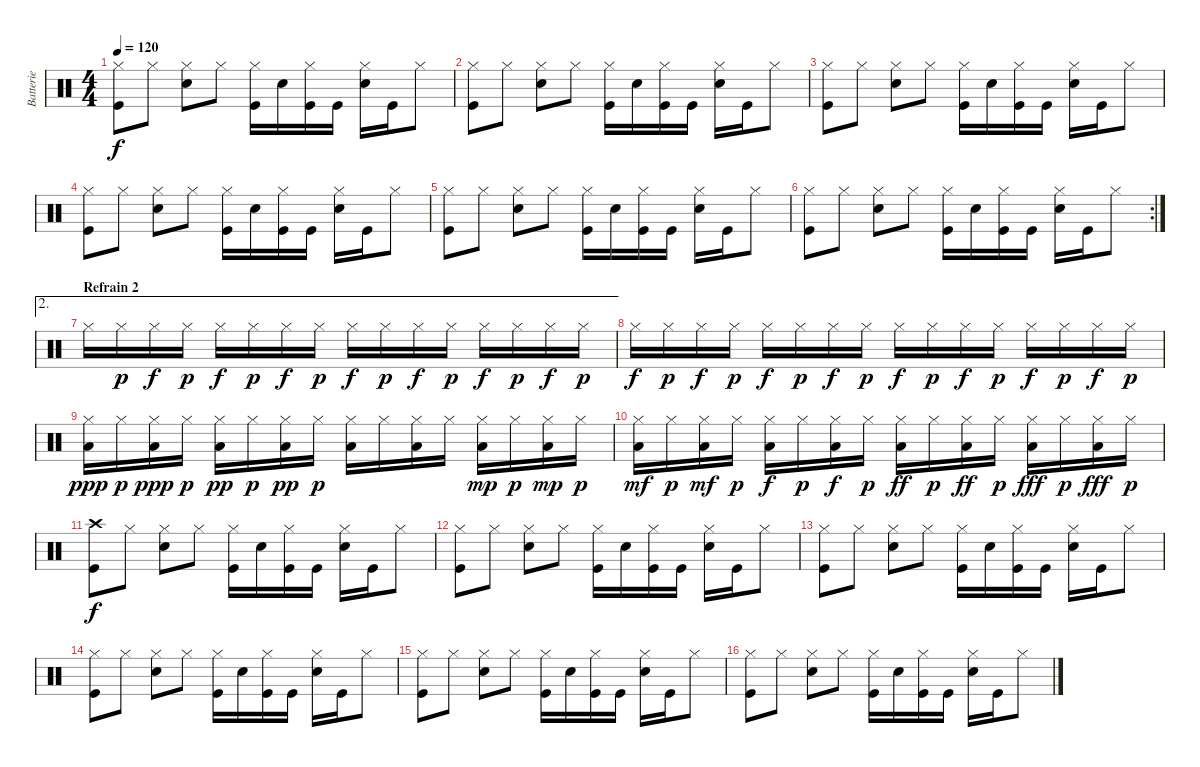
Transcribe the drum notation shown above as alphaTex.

\track ("Batterie" "Batterie") {instrument percussion}
\staff {score}
\articulation defaults
\ts (4 4)
\tempo 120
\clef neutral
\ks c
("Hi-Hat (closed)" "Kick (hit)").8{dy f} "Hi-Hat (closed)".8 ("Hi-Hat (closed)" "Snare (hit) 2").8 "Hi-Hat (closed)".8 ("Hi-Hat (closed)" "Kick (hit)").16 "Snare (hit) 2".16 ("Hi-Hat (closed)" "Kick (hit)").16 "Kick (hit)".16 ("Hi-Hat (closed)" "Snare (hit) 2").16 "Kick (hit)".16 "Hi-Hat (closed)".8 |
("Hi-Hat (closed)" "Kick (hit)").8 "Hi-Hat (closed)".8 ("Hi-Hat (closed)" "Snare (hit) 2").8 "Hi-Hat (closed)".8 ("Hi-Hat (closed)" "Kick (hit)").16 "Snare (hit) 2".16 ("Hi-Hat (closed)" "Kick (hit)").16 "Kick (hit)".16 ("Hi-Hat (closed)" "Snare (hit) 2").16 "Kick (hit)".16 "Hi-Hat (closed)".8 |
("Hi-Hat (closed)" "Kick (hit)").8 "Hi-Hat (closed)".8 ("Hi-Hat (closed)" "Snare (hit) 2").8 "Hi-Hat (closed)".8 ("Hi-Hat (closed)" "Kick (hit)").16 "Snare (hit) 2".16 ("Hi-Hat (closed)" "Kick (hit)").16 "Kick (hit)".16 ("Hi-Hat (closed)" "Snare (hit) 2").16 "Kick (hit)".16 "Hi-Hat (closed)".8 |
("Hi-Hat (closed)" "Kick (hit)").8 "Hi-Hat (closed)".8 ("Hi-Hat (closed)" "Snare (hit) 2").8 "Hi-Hat (closed)".8 ("Hi-Hat (closed)" "Kick (hit)").16 "Snare (hit) 2".16 ("Hi-Hat (closed)" "Kick (hit)").16 "Kick (hit)".16 ("Hi-Hat (closed)" "Snare (hit) 2").16 "Kick (hit)".16 "Hi-Hat (closed)".8 |
("Hi-Hat (closed)" "Kick (hit)").8 "Hi-Hat (closed)".8 ("Hi-Hat (closed)" "Snare (hit) 2").8 "Hi-Hat (closed)".8 ("Hi-Hat (closed)" "Kick (hit)").16 "Snare (hit) 2".16 ("Hi-Hat (closed)" "Kick (hit)").16 "Kick (hit)".16 ("Hi-Hat (closed)" "Snare (hit) 2").16 "Kick (hit)".16 "Hi-Hat (closed)".8 |
\rc 2
("Hi-Hat (closed)" "Kick (hit)").8 "Hi-Hat (closed)".8 ("Hi-Hat (closed)" "Snare (hit) 2").8 "Hi-Hat (closed)".8 ("Hi-Hat (closed)" "Kick (hit)").16 "Snare (hit) 2".16 ("Hi-Hat (closed)" "Kick (hit)").16 "Kick (hit)".16 ("Hi-Hat (closed)" "Snare (hit) 2").16 "Kick (hit)".16 "Hi-Hat (closed)".8 |
\ae 2
\section ("" "Refrain 2")
"Hi-Hat (closed)".16 "Hi-Hat (closed)".16{dy p} "Hi-Hat (closed)".16{dy f} "Hi-Hat (closed)".16{dy p} "Hi-Hat (closed)".16{dy f} "Hi-Hat (closed)".16{dy p} "Hi-Hat (closed)".16{dy f} "Hi-Hat (closed)".16{dy p} "Hi-Hat (closed)".16{dy f} "Hi-Hat (closed)".16{dy p} "Hi-Hat (closed)".16{dy f} "Hi-Hat (closed)".16{dy p} "Hi-Hat (closed)".16{dy f} "Hi-Hat (closed)".16{dy p} "Hi-Hat (closed)".16{dy f} "Hi-Hat (closed)".16{dy p} |
"Hi-Hat (closed)".16{dy f} "Hi-Hat (closed)".16{dy p} "Hi-Hat (closed)".16{dy f} "Hi-Hat (closed)".16{dy p} "Hi-Hat (closed)".16{dy f} "Hi-Hat (closed)".16{dy p} "Hi-Hat (closed)".16{dy f} "Hi-Hat (closed)".16{dy p} "Hi-Hat (closed)".16{dy f} "Hi-Hat (closed)".16{dy p} "Hi-Hat (closed)".16{dy f} "Hi-Hat (closed)".16{dy p} "Hi-Hat (closed)".16{dy f} "Hi-Hat (closed)".16{dy p} "Hi-Hat (closed)".16{dy f} "Hi-Hat (closed)".16{dy p} |
("Hi-Hat (closed)" "Low Floor Tom (hit)").16{dy ppp} "Hi-Hat (closed)".16{dy p} ("Hi-Hat (closed)" "Low Floor Tom (hit)").16{dy ppp} "Hi-Hat (closed)".16{dy p} ("Hi-Hat (closed)" "Low Floor Tom (hit)").16{dy pp} "Hi-Hat (closed)".16{dy p} ("Hi-Hat (closed)" "Low Floor Tom (hit)").16{dy pp} "Hi-Hat (closed)".16{dy p} ("Hi-Hat (closed)" "Low Floor Tom (hit)").16 "Hi-Hat (closed)".16 ("Hi-Hat (closed)" "Low Floor Tom (hit)").16 "Hi-Hat (closed)".16 ("Hi-Hat (closed)" "Low Floor Tom (hit)").16{dy mp} "Hi-Hat (closed)".16{dy p} ("Hi-Hat (closed)" "Low Floor Tom (hit)").16{dy mp} "Hi-Hat (closed)".16{dy p} |
("Hi-Hat (closed)" "Low Floor Tom (hit)").16{dy mf} "Hi-Hat (closed)".16{dy p} ("Hi-Hat (closed)" "Low Floor Tom (hit)").16{dy mf} "Hi-Hat (closed)".16{dy p} ("Hi-Hat (closed)" "Low Floor Tom (hit)").16{dy f} "Hi-Hat (closed)".16{dy p} ("Hi-Hat (closed)" "Low Floor Tom (hit)").16{dy f} "Hi-Hat (closed)".16{dy p} ("Hi-Hat (closed)" "Low Floor Tom (hit)").16{dy ff} "Hi-Hat (closed)".16{dy p} ("Hi-Hat (closed)" "Low Floor Tom (hit)").16{dy ff} "Hi-Hat (closed)".16{dy p} ("Hi-Hat (closed)" "Low Floor Tom (hit)").16{dy fff} "Hi-Hat (closed)".16{dy p} ("Hi-Hat (closed)" "Low Floor Tom (hit)").16{dy fff} "Hi-Hat (closed)".16{dy p} |
("Crash high (hit)" "Kick (hit)").8{dy f} "Hi-Hat (closed)".8 ("Hi-Hat (closed)" "Snare (hit) 2").8 "Hi-Hat (closed)".8 ("Hi-Hat (closed)" "Kick (hit)").16 "Snare (hit) 2".16 ("Hi-Hat (closed)" "Kick (hit)").16 "Kick (hit)".16 ("Hi-Hat (closed)" "Snare (hit) 2").16 "Kick (hit)".16 "Hi-Hat (closed)".8 |
("Hi-Hat (closed)" "Kick (hit)").8 "Hi-Hat (closed)".8 ("Hi-Hat (closed)" "Snare (hit) 2").8 "Hi-Hat (closed)".8 ("Hi-Hat (closed)" "Kick (hit)").16 "Snare (hit) 2".16 ("Hi-Hat (closed)" "Kick (hit)").16 "Kick (hit)".16 ("Hi-Hat (closed)" "Snare (hit) 2").16 "Kick (hit)".16 "Hi-Hat (closed)".8 |
("Hi-Hat (closed)" "Kick (hit)").8 "Hi-Hat (closed)".8 ("Hi-Hat (closed)" "Snare (hit) 2").8 "Hi-Hat (closed)".8 ("Hi-Hat (closed)" "Kick (hit)").16 "Snare (hit) 2".16 ("Hi-Hat (closed)" "Kick (hit)").16 "Kick (hit)".16 ("Hi-Hat (closed)" "Snare (hit) 2").16 "Kick (hit)".16 "Hi-Hat (closed)".8 |
("Hi-Hat (closed)" "Kick (hit)").8 "Hi-Hat (closed)".8 ("Hi-Hat (closed)" "Snare (hit) 2").8 "Hi-Hat (closed)".8 ("Hi-Hat (closed)" "Kick (hit)").16 "Snare (hit) 2".16 ("Hi-Hat (closed)" "Kick (hit)").16 "Kick (hit)".16 ("Hi-Hat (closed)" "Snare (hit) 2").16 "Kick (hit)".16 "Hi-Hat (closed)".8 |
("Hi-Hat (closed)" "Kick (hit)").8 "Hi-Hat (closed)".8 ("Hi-Hat (closed)" "Snare (hit) 2").8 "Hi-Hat (closed)".8 ("Hi-Hat (closed)" "Kick (hit)").16 "Snare (hit) 2".16 ("Hi-Hat (closed)" "Kick (hit)").16 "Kick (hit)".16 ("Hi-Hat (closed)" "Snare (hit) 2").16 "Kick (hit)".16 "Hi-Hat (closed)".8 |
("Hi-Hat (closed)" "Kick (hit)").8 "Hi-Hat (closed)".8 ("Hi-Hat (closed)" "Snare (hit) 2").8 "Hi-Hat (closed)".8 ("Hi-Hat (closed)" "Kick (hit)").16 "Snare (hit) 2".16 ("Hi-Hat (closed)" "Kick (hit)").16 "Kick (hit)".16 ("Hi-Hat (closed)" "Snare (hit) 2").16 "Kick (hit)".16 "Hi-Hat (closed)".8
